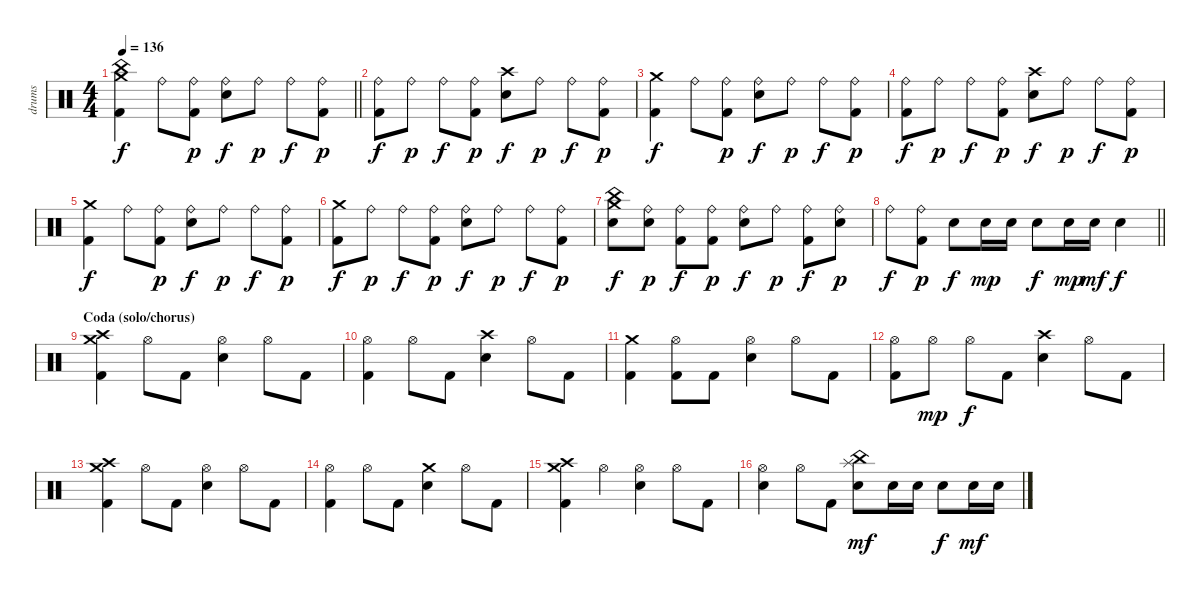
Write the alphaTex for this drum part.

\track ("drums" "drums") {instrument percussion}
\staff {score}
\articulation defaults
\ts (4 4)
\tempo 136
\clef neutral
\barLineRight lightlight
\ks c
("Crash medium (hit)" "China (hit)" "Kick (hit) 2").4{dy f} "Ride (bell)".8 ("Ride (bell)" "Kick (hit) 2").8{dy p} ("Ride (bell)" "Electric Snare (hit)").8{dy f} "Ride (bell)".8{dy p} "Ride (bell)".8{dy f} ("Ride (bell)" "Kick (hit) 2").8{dy p} |
("Ride (bell)" "Kick (hit) 2").8{dy f} "Ride (bell)".8{dy p} "Ride (bell)".8{dy f} ("Ride (bell)" "Kick (hit) 2").8{dy p} ("Crash high (hit)" "Electric Snare (hit)").8{dy f} "Ride (bell)".8{dy p} "Ride (bell)".8{dy f} ("Ride (bell)" "Kick (hit) 2").8{dy p} |
("Crash medium (hit)" "Kick (hit) 2").4{dy f} "Ride (bell)".8 ("Ride (bell)" "Kick (hit) 2").8{dy p} ("Ride (bell)" "Electric Snare (hit)").8{dy f} "Ride (bell)".8{dy p} "Ride (bell)".8{dy f} ("Ride (bell)" "Kick (hit) 2").8{dy p} |
("Ride (bell)" "Kick (hit) 2").8{dy f} "Ride (bell)".8{dy p} "Ride (bell)".8{dy f} ("Ride (bell)" "Kick (hit) 2").8{dy p} ("Crash high (hit)" "Electric Snare (hit)").8{dy f} "Ride (bell)".8{dy p} "Ride (bell)".8{dy f} ("Ride (bell)" "Kick (hit) 2").8{dy p} |
("Crash medium (hit)" "Kick (hit) 2").4{dy f} "Ride (bell)".8 ("Ride (bell)" "Kick (hit) 2").8{dy p} ("Ride (bell)" "Electric Snare (hit)").8{dy f} "Ride (bell)".8{dy p} "Ride (bell)".8{dy f} ("Ride (bell)" "Kick (hit) 2").8{dy p} |
("Crash medium (hit)" "Kick (hit) 2").8{dy f} "Ride (bell)".8{dy p} "Ride (bell)".8{dy f} ("Ride (bell)" "Kick (hit) 2").8{dy p} ("Ride (bell)" "Electric Snare (hit)").8{dy f} "Ride (bell)".8{dy p} "Ride (bell)".8{dy f} ("Ride (bell)" "Kick (hit) 2").8{dy p} |
("Crash medium (hit)" "China (hit)" "Electric Snare (hit)").8{dy f} ("Ride (bell)" "Electric Snare (hit)").8{dy p} ("Ride (bell)" "Kick (hit) 2").8{dy f} ("Ride (bell)" "Kick (hit) 2").8{dy p} ("Ride (bell)" "Electric Snare (hit)").8{dy f} "Ride (bell)".8{dy p} ("Ride (bell)" "Kick (hit) 2").8{dy f} ("Ride (bell)" "Electric Snare (hit)").8{dy p} |
\barLineRight lightlight "Ride (bell)".8{dy f}
("Ride (bell)" "Kick (hit) 2").8{dy p} "Electric Snare (hit)".8{dy f} "Electric Snare (hit)".16{dy mp} "Electric Snare (hit)".16 "Electric Snare (hit)".8{dy f} "Electric Snare (hit)".16{dy mp} "Electric Snare (hit)".16{dy mf} "Electric Snare (hit)".4{dy f} |
\section ("" "Coda (solo/chorus)")
("Crash high (hit)" "Crash medium (hit)" "Kick (hit) 2").4 "Hi-Hat (open)".8 "Kick (hit) 2".8 ("Hi-Hat (open)" "Electric Snare (hit)").4 "Hi-Hat (open)".8 "Kick (hit) 2".8 |
("Hi-Hat (open)" "Kick (hit) 2").4 "Hi-Hat (open)".8 "Kick (hit) 2".8 ("Crash high (hit)" "Electric Snare (hit)").4 "Hi-Hat (open)".8 "Kick (hit) 2".8 |
("Crash medium (hit)" "Kick (hit) 2").4 ("Hi-Hat (open)" "Kick (hit) 2").8 "Kick (hit) 2".8 ("Hi-Hat (open)" "Electric Snare (hit)").4 "Hi-Hat (open)".8 "Kick (hit) 2".8 |
("Hi-Hat (open)" "Kick (hit) 2").8 "Hi-Hat (open)".8{dy mp} "Hi-Hat (open)".8{dy f} "Kick (hit) 2".8 ("Crash high (hit)" "Electric Snare (hit)").4 "Hi-Hat (open)".8 "Kick (hit) 2".8 |
("Crash high (hit)" "Crash medium (hit)" "Kick (hit) 2").4 "Hi-Hat (open)".8 "Kick (hit) 2".8 ("Hi-Hat (open)" "Electric Snare (hit)").4 "Hi-Hat (open)".8 "Kick (hit) 2".8 |
("Hi-Hat (open)" "Kick (hit) 2").4 "Hi-Hat (open)".8 "Kick (hit) 2".8 ("Crash medium (hit)" "Electric Snare (hit)").4 "Hi-Hat (open)".8 "Kick (hit) 2".8 |
("Crash medium (hit)" "Crash high (hit)" "Kick (hit) 2").4 "Hi-Hat (open)".4 ("Hi-Hat (open)" "Electric Snare (hit)").4 "Hi-Hat (open)".8 "Kick (hit) 2".8 |
("Hi-Hat (open)" "Electric Snare (hit)").4 "Hi-Hat (open)".8 "Kick (hit) 2".8 ("Splash (hit)" "China (hit)" "Electric Snare (hit)").8{dy mf} "Electric Snare (hit)".16 "Electric Snare (hit)".16 "Electric Snare (hit)".8{dy f} "Electric Snare (hit)".16{dy mf} "Electric Snare (hit)".16
